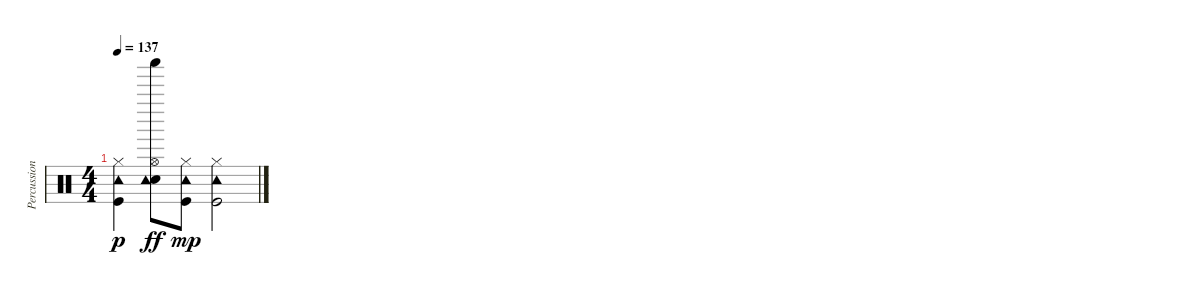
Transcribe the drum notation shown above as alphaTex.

\track ("Percussion" "Percussion") {instrument percussion}
\staff {score}
\articulation defaults
\ts (4 4)
\tempo 137
\clef neutral
\ks c
("Hi-Hat (closed)" "Kick (hit)" "Tambourine (hit)").4{dy p} ("Hi-Hat (open)" "Electric Snare (hit)" "Tambourine (hit)" "Shaker (hit)").8{dy ff} ("Hi-Hat (closed)" "Kick (hit)" "Tambourine (hit)").8{dy mp} ("Hi-Hat (closed)" "Kick (hit)" "Tambourine (hit)").2
